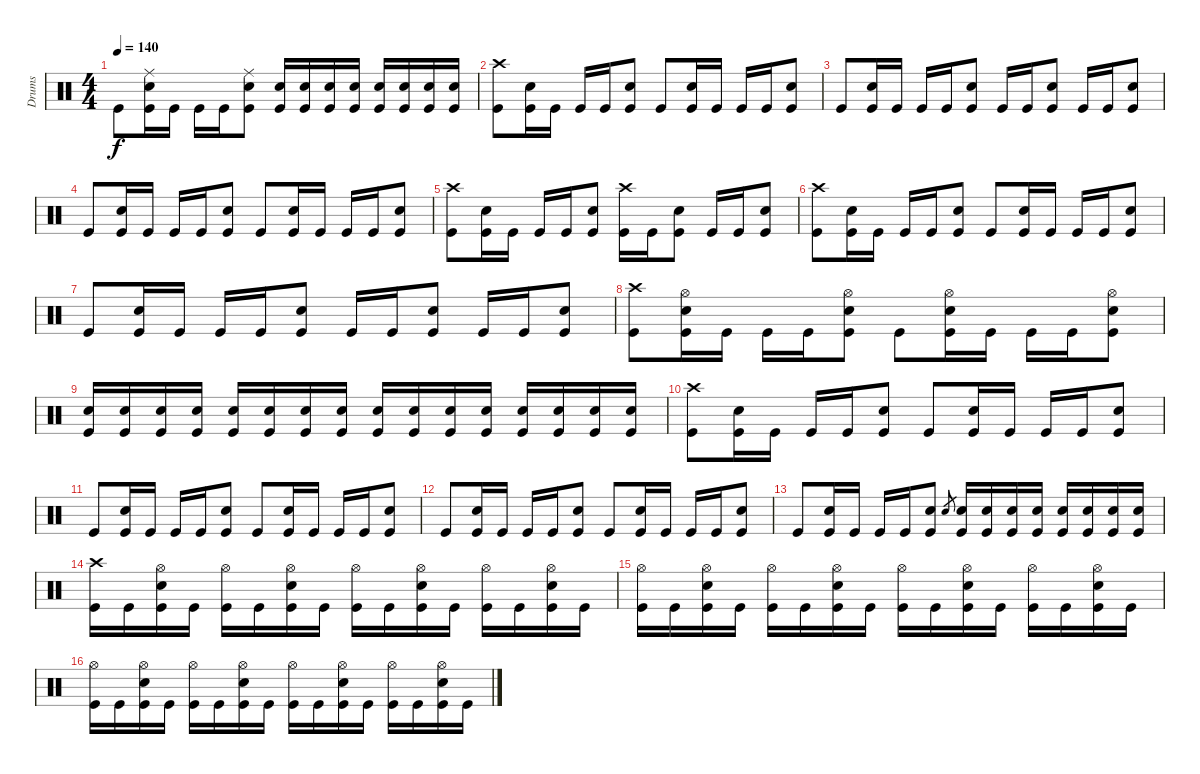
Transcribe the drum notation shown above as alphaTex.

\track ("Drums" "Drums") {instrument percussion}
\staff {score}
\articulation defaults
\ts (4 4)
\tempo 140
\clef neutral
\ks c "Kick (hit)".8{dy f}
("Snare (hit) 2" "Kick (hit)" "Ride (middle)").16 "Kick (hit)".16 "Kick (hit)".16 "Kick (hit)".16 ("Snare (hit) 2" "Kick (hit)" "Ride (middle)").8 ("Kick (hit)" "Snare (hit) 2").16 ("Kick (hit)" "Snare (hit) 2").16 ("Snare (hit) 2" "Kick (hit)").16 ("Kick (hit)" "Snare (hit) 2").16 ("Kick (hit)" "Snare (hit) 2").16 ("Snare (hit) 2" "Kick (hit)").16 ("Kick (hit)" "Snare (hit) 2").16 ("Kick (hit)" "Snare (hit) 2").16 |
("Kick (hit)" "Crash high (hit)").8 ("Snare (hit) 2" "Kick (hit)").16 "Kick (hit)".16 "Kick (hit)".16 "Kick (hit)".16 ("Snare (hit) 2" "Kick (hit)").8 "Kick (hit)".8 ("Snare (hit) 2" "Kick (hit)").16 "Kick (hit)".16 "Kick (hit)".16 "Kick (hit)".16 ("Snare (hit) 2" "Kick (hit)").8 |
"Kick (hit)".8 ("Snare (hit) 2" "Kick (hit)").16 "Kick (hit)".16 "Kick (hit)".16 "Kick (hit)".16 ("Snare (hit) 2" "Kick (hit)").8 "Kick (hit)".16 "Kick (hit)".16 ("Snare (hit) 2" "Kick (hit)").8 "Kick (hit)".16 "Kick (hit)".16 ("Snare (hit) 2" "Kick (hit)").8 |
"Kick (hit)".8 ("Snare (hit) 2" "Kick (hit)").16 "Kick (hit)".16 "Kick (hit)".16 "Kick (hit)".16 ("Snare (hit) 2" "Kick (hit)").8 "Kick (hit)".8 ("Snare (hit) 2" "Kick (hit)").16 "Kick (hit)".16 "Kick (hit)".16 "Kick (hit)".16 ("Snare (hit) 2" "Kick (hit)").8 |
("Kick (hit)" "Crash high (hit)").8 ("Snare (hit) 2" "Kick (hit)").16 "Kick (hit)".16 "Kick (hit)".16 "Kick (hit)".16 ("Snare (hit) 2" "Kick (hit)").8 ("Kick (hit)" "Crash high (hit)").16 "Kick (hit)".16 ("Snare (hit) 2" "Kick (hit)").8 "Kick (hit)".16 "Kick (hit)".16 ("Snare (hit) 2" "Kick (hit)").8 |
("Kick (hit)" "Crash high (hit)").8 ("Snare (hit) 2" "Kick (hit)").16 "Kick (hit)".16 "Kick (hit)".16 "Kick (hit)".16 ("Snare (hit) 2" "Kick (hit)").8 "Kick (hit)".8 ("Snare (hit) 2" "Kick (hit)").16 "Kick (hit)".16 "Kick (hit)".16 "Kick (hit)".16 ("Snare (hit) 2" "Kick (hit)").8 |
"Kick (hit)".8 ("Snare (hit) 2" "Kick (hit)").16 "Kick (hit)".16 "Kick (hit)".16 "Kick (hit)".16 ("Snare (hit) 2" "Kick (hit)").8 "Kick (hit)".16 "Kick (hit)".16 ("Snare (hit) 2" "Kick (hit)").8 "Kick (hit)".16 "Kick (hit)".16 ("Snare (hit) 2" "Kick (hit)").8 |
("Kick (hit)" "Crash high (hit)").8 ("Snare (hit) 2" "Kick (hit)" "Hi-Hat (open)").16 "Kick (hit)".16 "Kick (hit)".16 "Kick (hit)".16 ("Snare (hit) 2" "Kick (hit)" "Hi-Hat (open)").8 "Kick (hit)".8 ("Snare (hit) 2" "Kick (hit)" "Hi-Hat (open)").16 "Kick (hit)".16 "Kick (hit)".16 "Kick (hit)".16 ("Snare (hit) 2" "Kick (hit)" "Hi-Hat (open)").8 |
("Kick (hit)" "Snare (hit) 2").16 ("Kick (hit)" "Snare (hit) 2").16 ("Snare (hit) 2" "Kick (hit)").16 ("Kick (hit)" "Snare (hit) 2").16 ("Kick (hit)" "Snare (hit) 2").16 ("Snare (hit) 2" "Kick (hit)").16 ("Kick (hit)" "Snare (hit) 2").16 ("Kick (hit)" "Snare (hit) 2").16 ("Kick (hit)" "Snare (hit) 2").16 ("Kick (hit)" "Snare (hit) 2").16 ("Snare (hit) 2" "Kick (hit)").16 ("Kick (hit)" "Snare (hit) 2").16 ("Kick (hit)" "Snare (hit) 2").16 ("Snare (hit) 2" "Kick (hit)").16 ("Kick (hit)" "Snare (hit) 2").16 ("Kick (hit)" "Snare (hit) 2").16 |
("Kick (hit)" "Crash high (hit)").8 ("Snare (hit) 2" "Kick (hit)").16 "Kick (hit)".16 "Kick (hit)".16 "Kick (hit)".16 ("Snare (hit) 2" "Kick (hit)").8 "Kick (hit)".8 ("Snare (hit) 2" "Kick (hit)").16 "Kick (hit)".16 "Kick (hit)".16 "Kick (hit)".16 ("Snare (hit) 2" "Kick (hit)").8 |
"Kick (hit)".8 ("Snare (hit) 2" "Kick (hit)").16 "Kick (hit)".16 "Kick (hit)".16 "Kick (hit)".16 ("Snare (hit) 2" "Kick (hit)").8 "Kick (hit)".8 ("Snare (hit) 2" "Kick (hit)").16 "Kick (hit)".16 "Kick (hit)".16 "Kick (hit)".16 ("Snare (hit) 2" "Kick (hit)").8 |
"Kick (hit)".8 ("Snare (hit) 2" "Kick (hit)").16 "Kick (hit)".16 "Kick (hit)".16 "Kick (hit)".16 ("Snare (hit) 2" "Kick (hit)").8 "Kick (hit)".8 ("Snare (hit) 2" "Kick (hit)").16 "Kick (hit)".16 "Kick (hit)".16 "Kick (hit)".16 ("Snare (hit) 2" "Kick (hit)").8 |
"Kick (hit)".8 ("Snare (hit) 2" "Kick (hit)").16 "Kick (hit)".16 "Kick (hit)".16 "Kick (hit)".16 ("Snare (hit) 2" "Kick (hit)").8 "Snare (hit) 2".8{gr} ("Kick (hit)" "Snare (hit) 2").16 ("Kick (hit)" "Snare (hit) 2").16 ("Snare (hit) 2" "Kick (hit)").16 ("Kick (hit)" "Snare (hit) 2").16 ("Kick (hit)" "Snare (hit) 2").16 ("Snare (hit) 2" "Kick (hit)").16 ("Kick (hit)" "Snare (hit) 2").16 ("Kick (hit)" "Snare (hit) 2").16 |
("Kick (hit)" "Crash high (hit)").16 "Kick (hit)".16 ("Kick (hit)" "Snare (hit) 2" "Hi-Hat (open)").16 "Kick (hit)".16 ("Kick (hit)" "Hi-Hat (open)").16 "Kick (hit)".16 ("Kick (hit)" "Snare (hit) 2" "Hi-Hat (open)").16 "Kick (hit)".16 ("Kick (hit)" "Hi-Hat (open)").16 "Kick (hit)".16 ("Kick (hit)" "Snare (hit) 2" "Hi-Hat (open)").16 "Kick (hit)".16 ("Kick (hit)" "Hi-Hat (open)").16 "Kick (hit)".16 ("Kick (hit)" "Snare (hit) 2" "Hi-Hat (open)").16 "Kick (hit)".16 |
("Kick (hit)" "Hi-Hat (open)").16 "Kick (hit)".16 ("Kick (hit)" "Snare (hit) 2" "Hi-Hat (open)").16 "Kick (hit)".16 ("Kick (hit)" "Hi-Hat (open)").16 "Kick (hit)".16 ("Kick (hit)" "Snare (hit) 2" "Hi-Hat (open)").16 "Kick (hit)".16 ("Kick (hit)" "Hi-Hat (open)").16 "Kick (hit)".16 ("Kick (hit)" "Snare (hit) 2" "Hi-Hat (open)").16 "Kick (hit)".16 ("Kick (hit)" "Hi-Hat (open)").16 "Kick (hit)".16 ("Kick (hit)" "Snare (hit) 2" "Hi-Hat (open)").16 "Kick (hit)".16 |
("Kick (hit)" "Hi-Hat (open)").16 "Kick (hit)".16 ("Kick (hit)" "Snare (hit) 2" "Hi-Hat (open)").16 "Kick (hit)".16 ("Kick (hit)" "Hi-Hat (open)").16 "Kick (hit)".16 ("Kick (hit)" "Snare (hit) 2" "Hi-Hat (open)").16 "Kick (hit)".16 ("Kick (hit)" "Hi-Hat (open)").16 "Kick (hit)".16 ("Kick (hit)" "Snare (hit) 2" "Hi-Hat (open)").16 "Kick (hit)".16 ("Kick (hit)" "Hi-Hat (open)").16 "Kick (hit)".16 ("Kick (hit)" "Snare (hit) 2" "Hi-Hat (open)").16 "Kick (hit)".16
